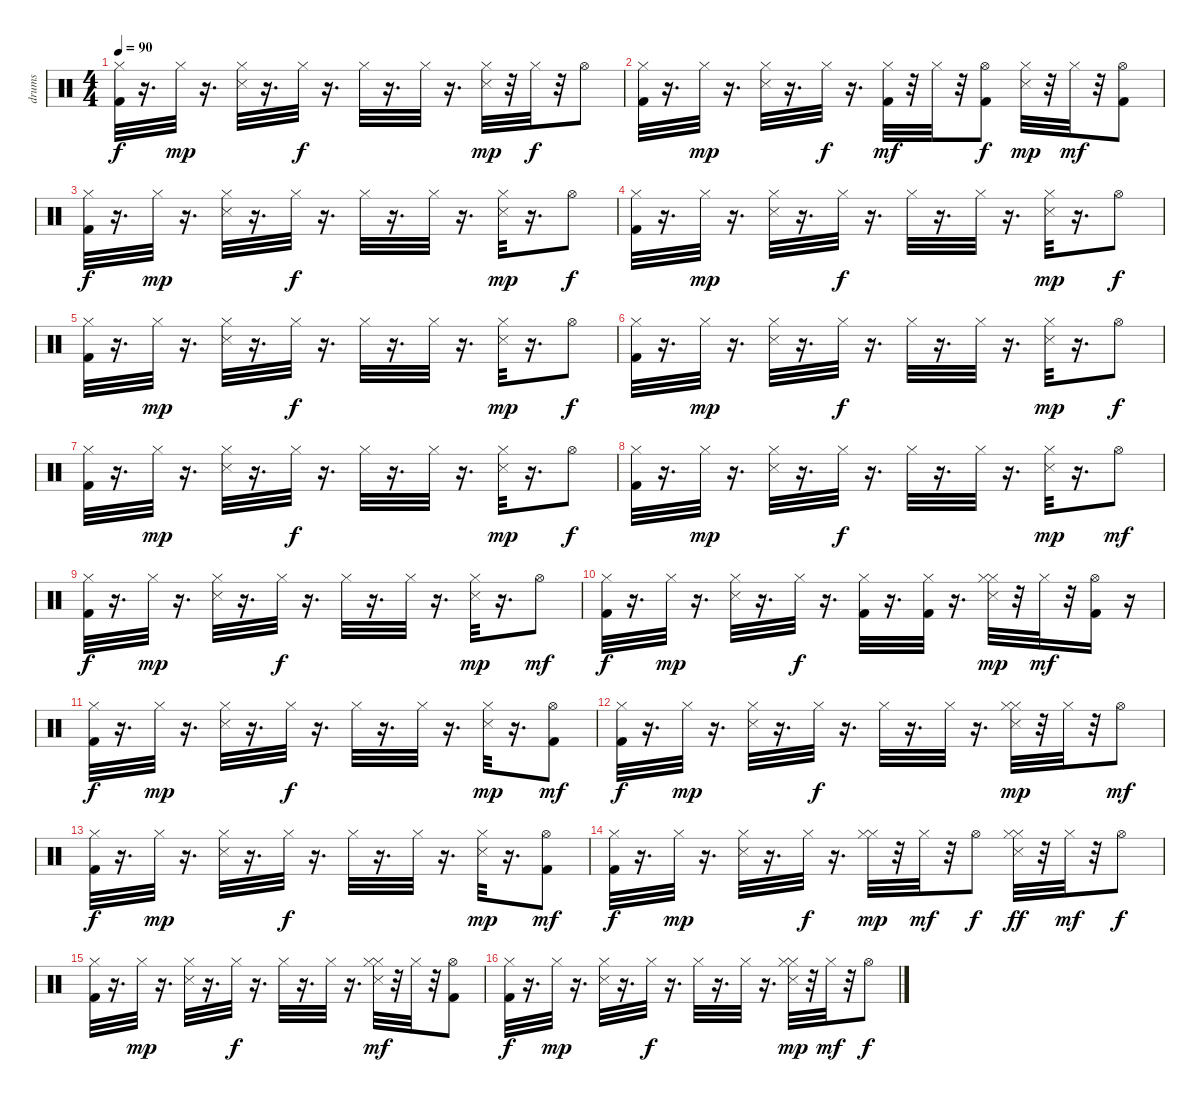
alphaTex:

\track ("drums" "drums") {instrument percussion}
\staff {score}
\articulation defaults
\ts (4 4)
\tempo 90
\clef neutral
\ks c
("Kick (hit) 2" "Hi-Hat (closed)").32{dy f} r.16{d} "Hi-Hat (closed)".32{dy mp} r.16{d} ("Snare (side stick) 3" "Hi-Hat (closed)").32 r.16{d} "Hi-Hat (closed)".32{dy f} r.16{d} "Hi-Hat (closed)".32 r.16{d} "Hi-Hat (closed)".32 r.16{d} ("Snare (side stick) 3" "Hi-Hat (closed)").32{dy mp} r.32 "Hi-Hat (closed)".32{dy f} r.32 "Hi-Hat (open)".8 |
("Kick (hit) 2" "Hi-Hat (closed)").32 r.16{d} "Hi-Hat (closed)".32{dy mp} r.16{d} ("Snare (side stick) 3" "Hi-Hat (closed)").32 r.16{d} "Hi-Hat (closed)".32{dy f} r.16{d} ("Kick (hit) 2" "Hi-Hat (closed)").32{dy mf} r.32 "Hi-Hat (closed)".32 r.32 ("Kick (hit) 2" "Hi-Hat (open)").8{dy f} ("Snare (side stick) 3" "Hi-Hat (closed)").32{dy mp} r.32 "Hi-Hat (closed)".32{dy mf} r.32 ("Kick (hit) 2" "Hi-Hat (open)").8 |
("Kick (hit) 2" "Hi-Hat (closed)").32{dy f} r.16{d} "Hi-Hat (closed)".32{dy mp} r.16{d} ("Snare (side stick) 3" "Hi-Hat (closed)").32 r.16{d} "Hi-Hat (closed)".32{dy f} r.16{d} "Hi-Hat (closed)".32 r.16{d} "Hi-Hat (closed)".32 r.16{d} ("Snare (side stick) 3" "Hi-Hat (closed)").32{dy mp} r.16{d} "Hi-Hat (open)".8{dy f} |
("Kick (hit) 2" "Hi-Hat (closed)").32 r.16{d} "Hi-Hat (closed)".32{dy mp} r.16{d} ("Snare (side stick) 3" "Hi-Hat (closed)").32 r.16{d} "Hi-Hat (closed)".32{dy f} r.16{d} "Hi-Hat (closed)".32 r.16{d} "Hi-Hat (closed)".32 r.16{d} ("Snare (side stick) 3" "Hi-Hat (closed)").32{dy mp} r.16{d} "Hi-Hat (open)".8{dy f} |
("Kick (hit) 2" "Hi-Hat (closed)").32 r.16{d} "Hi-Hat (closed)".32{dy mp} r.16{d} ("Snare (side stick) 3" "Hi-Hat (closed)").32 r.16{d} "Hi-Hat (closed)".32{dy f} r.16{d} "Hi-Hat (closed)".32 r.16{d} "Hi-Hat (closed)".32 r.16{d} ("Snare (side stick) 3" "Hi-Hat (closed)").32{dy mp} r.16{d} "Hi-Hat (open)".8{dy f} |
("Kick (hit) 2" "Hi-Hat (closed)").32 r.16{d} "Hi-Hat (closed)".32{dy mp} r.16{d} ("Snare (side stick) 3" "Hi-Hat (closed)").32 r.16{d} "Hi-Hat (closed)".32{dy f} r.16{d} "Hi-Hat (closed)".32 r.16{d} "Hi-Hat (closed)".32 r.16{d} ("Snare (side stick) 3" "Hi-Hat (closed)").32{dy mp} r.16{d} "Hi-Hat (open)".8{dy f} |
("Kick (hit) 2" "Hi-Hat (closed)").32 r.16{d} "Hi-Hat (closed)".32{dy mp} r.16{d} ("Snare (side stick) 3" "Hi-Hat (closed)").32 r.16{d} "Hi-Hat (closed)".32{dy f} r.16{d} "Hi-Hat (closed)".32 r.16{d} "Hi-Hat (closed)".32 r.16{d} ("Snare (side stick) 3" "Hi-Hat (closed)").32{dy mp} r.16{d} "Hi-Hat (open)".8{dy f} |
("Kick (hit) 2" "Hi-Hat (closed)").32 r.16{d} "Hi-Hat (closed)".32{dy mp} r.16{d} ("Snare (side stick) 3" "Hi-Hat (closed)").32 r.16{d} "Hi-Hat (closed)".32{dy f} r.16{d} "Hi-Hat (closed)".32 r.16{d} "Hi-Hat (closed)".32 r.16{d} ("Snare (side stick) 3" "Hi-Hat (closed)").32{dy mp} r.16{d} "Hi-Hat (open)".8{dy mf} |
("Kick (hit) 2" "Hi-Hat (closed)").32{dy f} r.16{d} "Hi-Hat (closed)".32{dy mp} r.16{d} ("Snare (side stick) 3" "Hi-Hat (closed)").32 r.16{d} "Hi-Hat (closed)".32{dy f} r.16{d} "Hi-Hat (closed)".32 r.16{d} "Hi-Hat (closed)".32 r.16{d} ("Snare (side stick) 3" "Hi-Hat (closed)").32{dy mp} r.16{d} "Hi-Hat (open)".8{dy mf} |
("Kick (hit) 2" "Hi-Hat (closed)").32{dy f} r.16{d} "Hi-Hat (closed)".32{dy mp} r.16{d} ("Snare (side stick) 3" "Hi-Hat (closed)").32 r.16{d} "Hi-Hat (closed)".32{dy f} r.16{d} ("Kick (hit) 2" "Hi-Hat (closed)").32 r.16{d} ("Kick (hit) 2" "Hi-Hat (closed)").32 r.16{d} ("Snare (side stick) 3" "Hi-Hat (closed)" "Hi-Hat (closed)").32{dy mp} r.32 "Hi-Hat (closed)".32{dy mf} r.32 ("Kick (hit) 2" "Hi-Hat (open)").16 r.16 |
("Kick (hit) 2" "Hi-Hat (closed)").32{dy f} r.16{d} "Hi-Hat (closed)".32{dy mp} r.16{d} ("Snare (side stick) 3" "Hi-Hat (closed)").32 r.16{d} "Hi-Hat (closed)".32{dy f} r.16{d} "Hi-Hat (closed)".32 r.16{d} "Hi-Hat (closed)".32 r.16{d} ("Snare (side stick) 3" "Hi-Hat (closed)").32{dy mp} r.16{d} ("Kick (hit) 2" "Hi-Hat (open)").8{dy mf} |
("Kick (hit) 2" "Hi-Hat (closed)").32{dy f} r.16{d} "Hi-Hat (closed)".32{dy mp} r.16{d} ("Snare (side stick) 3" "Hi-Hat (closed)").32 r.16{d} "Hi-Hat (closed)".32{dy f} r.16{d} "Hi-Hat (closed)".32 r.16{d} "Hi-Hat (closed)".32 r.16{d} ("Snare (side stick) 3" "Hi-Hat (closed)" "Hi-Hat (closed)").32{dy mp} r.32 "Hi-Hat (closed)".32 r.32 "Hi-Hat (open)".8{dy mf} |
("Kick (hit) 2" "Hi-Hat (closed)").32{dy f} r.16{d} "Hi-Hat (closed)".32{dy mp} r.16{d} ("Snare (side stick) 3" "Hi-Hat (closed)").32 r.16{d} "Hi-Hat (closed)".32{dy f} r.16{d} "Hi-Hat (closed)".32 r.16{d} "Hi-Hat (closed)".32 r.16{d} ("Snare (side stick) 3" "Hi-Hat (closed)").32{dy mp} r.16{d} ("Kick (hit) 2" "Hi-Hat (open)").8{dy mf} |
("Kick (hit) 2" "Hi-Hat (closed)").32{dy f} r.16{d} "Hi-Hat (closed)".32{dy mp} r.16{d} ("Snare (side stick) 3" "Hi-Hat (closed)").32 r.16{d} "Hi-Hat (closed)".32{dy f} r.16{d} ("Hi-Hat (closed)" "Hi-Hat (closed)").32{dy mp} r.32 "Hi-Hat (closed)".32{dy mf} r.32 "Hi-Hat (open)".8{dy f} ("Snare (side stick) 3" "Hi-Hat (closed)" "Hi-Hat (closed)").32{dy ff} r.32 "Hi-Hat (closed)".32{dy mf} r.32 "Hi-Hat (open)".8{dy f} |
("Kick (hit) 2" "Hi-Hat (closed)").32 r.16{d} "Hi-Hat (closed)".32{dy mp} r.16{d} ("Snare (side stick) 3" "Hi-Hat (closed)").32 r.16{d} "Hi-Hat (closed)".32{dy f} r.16{d} "Hi-Hat (closed)".32 r.16{d} "Hi-Hat (closed)".32 r.16{d} ("Snare (side stick) 3" "Hi-Hat (closed)" "Hi-Hat (closed)").32{dy mf} r.32 "Hi-Hat (closed)".32 r.32 ("Kick (hit) 2" "Hi-Hat (open)").8 |
("Kick (hit) 2" "Hi-Hat (closed)").32{dy f} r.16{d} "Hi-Hat (closed)".32{dy mp} r.16{d} ("Snare (side stick) 3" "Hi-Hat (closed)").32 r.16{d} "Hi-Hat (closed)".32{dy f} r.16{d} "Hi-Hat (closed)".32 r.16{d} "Hi-Hat (closed)".32 r.16{d} ("Snare (side stick) 3" "Hi-Hat (closed)" "Hi-Hat (closed)").32{dy mp} r.32 "Hi-Hat (closed)".32{dy mf} r.32 "Hi-Hat (open)".8{dy f}
